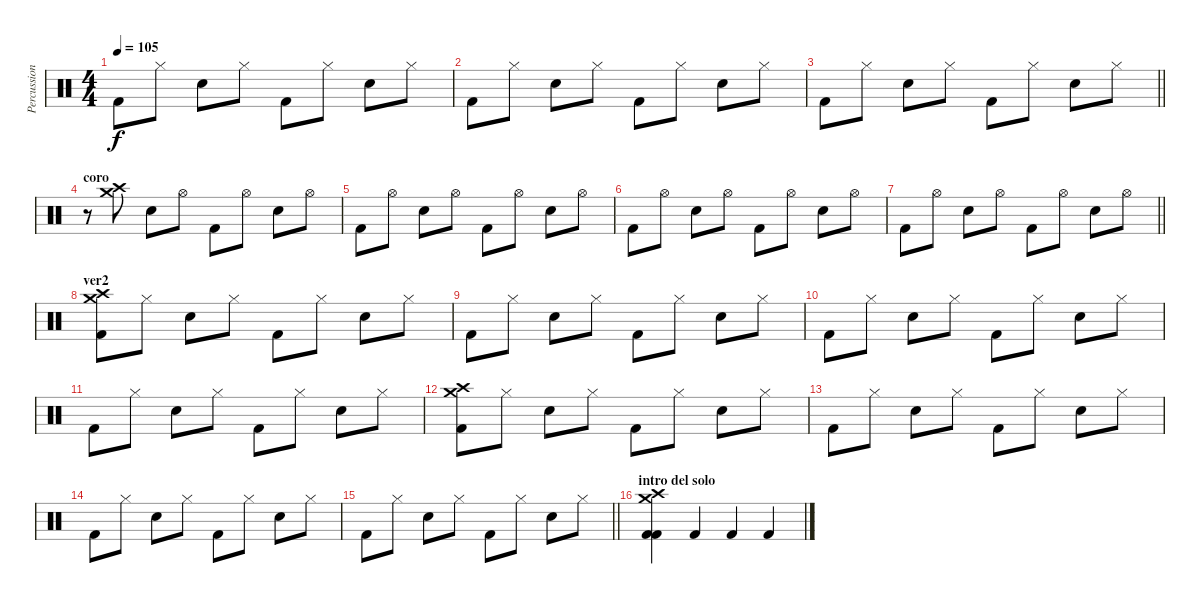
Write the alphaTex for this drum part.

\track ("Percussion" "Percussion") {instrument percussion}
\staff {score}
\articulation defaults
\ts (4 4)
\tempo 105
\clef neutral
\ks c "Kick (hit) 2".8{dy f} "Hi-Hat (closed)".8 "Snare (hit) 2".8 "Hi-Hat (closed)".8 "Kick (hit) 2".8 "Hi-Hat (closed)".8 "Snare (hit) 2".8 "Hi-Hat (closed)".8
|
"Kick (hit) 2".8 "Hi-Hat (closed)".8 "Snare (hit) 2".8 "Hi-Hat (closed)".8 "Kick (hit) 2".8 "Hi-Hat (closed)".8 "Snare (hit) 2".8 "Hi-Hat (closed)".8 |
\barLineRight lightlight "Kick (hit) 2".8 "Hi-Hat (closed)".8 "Snare (hit) 2".8 "Hi-Hat (closed)".8 "Kick (hit) 2".8 "Hi-Hat (closed)".8 "Snare (hit) 2".8 "Hi-Hat (closed)".8
|
\section ("" "coro")
r.8 ("Crash medium (hit)" "Crash high (hit)").8 "Snare (hit) 2".8 "Hi-Hat (open)".8 "Kick (hit) 2".8 "Hi-Hat (open)".8 "Snare (hit) 2".8 "Hi-Hat (open)".8 |
"Kick (hit) 2".8 "Hi-Hat (open)".8 "Snare (hit) 2".8 "Hi-Hat (open)".8 "Kick (hit) 2".8 "Hi-Hat (open)".8 "Snare (hit) 2".8 "Hi-Hat (open)".8 |
"Kick (hit) 2".8 "Hi-Hat (open)".8 "Snare (hit) 2".8 "Hi-Hat (open)".8 "Kick (hit) 2".8 "Hi-Hat (open)".8 "Snare (hit) 2".8 "Hi-Hat (open)".8 |
\barLineRight lightlight "Kick (hit) 2".8 "Hi-Hat (open)".8 "Snare (hit) 2".8 "Hi-Hat (open)".8 "Kick (hit) 2".8 "Hi-Hat (open)".8 "Snare (hit) 2".8 "Hi-Hat (open)".8
|
\section ("" "ver2")
("Crash medium (hit)" "Crash high (hit)" "Kick (hit) 2").8 "Hi-Hat (closed)".8 "Snare (hit) 2".8 "Hi-Hat (closed)".8 "Kick (hit) 2".8 "Hi-Hat (closed)".8 "Snare (hit) 2".8 "Hi-Hat (closed)".8 |
"Kick (hit) 2".8 "Hi-Hat (closed)".8 "Snare (hit) 2".8 "Hi-Hat (closed)".8 "Kick (hit) 2".8 "Hi-Hat (closed)".8 "Snare (hit) 2".8 "Hi-Hat (closed)".8 |
"Kick (hit) 2".8 "Hi-Hat (closed)".8 "Snare (hit) 2".8 "Hi-Hat (closed)".8 "Kick (hit) 2".8 "Hi-Hat (closed)".8 "Snare (hit) 2".8 "Hi-Hat (closed)".8 |
"Kick (hit) 2".8 "Hi-Hat (closed)".8 "Snare (hit) 2".8 "Hi-Hat (closed)".8 "Kick (hit) 2".8 "Hi-Hat (closed)".8 "Snare (hit) 2".8 "Hi-Hat (closed)".8 |
("Crash medium (hit)" "Crash high (hit)" "Kick (hit) 2").8 "Hi-Hat (closed)".8 "Snare (hit) 2".8 "Hi-Hat (closed)".8 "Kick (hit) 2".8 "Hi-Hat (closed)".8 "Snare (hit) 2".8 "Hi-Hat (closed)".8 |
"Kick (hit) 2".8 "Hi-Hat (closed)".8 "Snare (hit) 2".8 "Hi-Hat (closed)".8 "Kick (hit) 2".8 "Hi-Hat (closed)".8 "Snare (hit) 2".8 "Hi-Hat (closed)".8 |
"Kick (hit) 2".8 "Hi-Hat (closed)".8 "Snare (hit) 2".8 "Hi-Hat (closed)".8 "Kick (hit) 2".8 "Hi-Hat (closed)".8 "Snare (hit) 2".8 "Hi-Hat (closed)".8 |
\barLineRight lightlight "Kick (hit) 2".8 "Hi-Hat (closed)".8 "Snare (hit) 2".8 "Hi-Hat (closed)".8 "Kick (hit) 2".8 "Hi-Hat (closed)".8 "Snare (hit) 2".8 "Hi-Hat (closed)".8
|
\section ("" "intro del solo")
("Kick (hit) 2" "Crash medium (hit)" "Crash high (hit)" "Kick (hit) 2").4 "Kick (hit) 2".4 "Kick (hit) 2".4 "Kick (hit) 2".4
